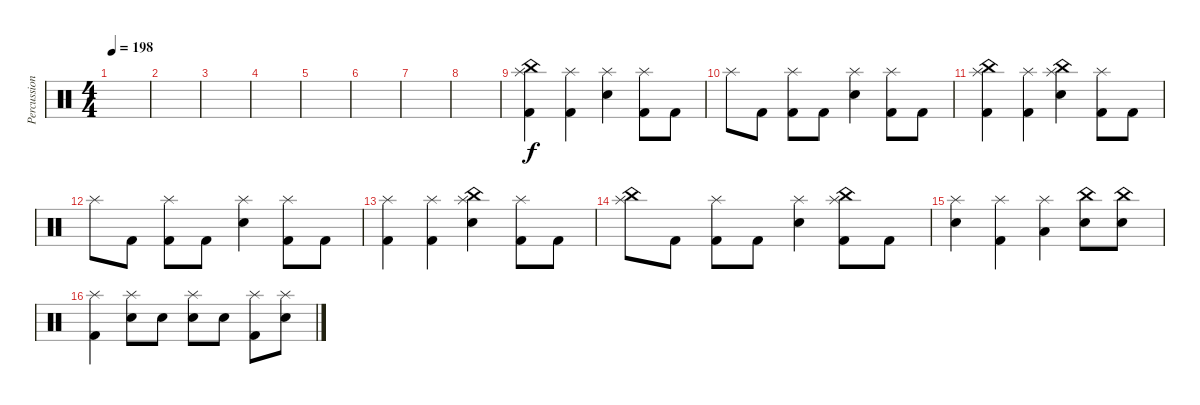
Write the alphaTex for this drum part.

\track ("Percussion" "Percussion") {instrument percussion}
\staff {score}
\articulation defaults
\ts (4 4)
\tempo 198
\clef neutral
\ks c
|
|
|
|
|
|
|
|
("China (hit)" "Splash (hit)" "Kick (hit) 2").4 ("Splash (hit)" "Kick (hit) 2").4 ("Splash (hit)" "Electric Snare (hit)").4 ("Splash (hit)" "Kick (hit) 2").8 "Kick (hit) 2".8 |
"Splash (hit)".8 "Kick (hit) 2".8 ("Splash (hit)" "Kick (hit) 2").8 "Kick (hit) 2".8 ("Splash (hit)" "Electric Snare (hit)").4 ("Splash (hit)" "Kick (hit) 2").8 "Kick (hit) 2".8 |
("China (hit)" "Splash (hit)" "Kick (hit) 2").4 ("Splash (hit)" "Kick (hit) 2").4 ("China (hit)" "Splash (hit)" "Electric Snare (hit)").4 ("Splash (hit)" "Kick (hit) 2").8 "Kick (hit) 2".8 |
"Splash (hit)".8 "Kick (hit) 2".8 ("Splash (hit)" "Kick (hit) 2").8 "Kick (hit) 2".8 ("Splash (hit)" "Electric Snare (hit)").4 ("Splash (hit)" "Kick (hit) 2").8 "Kick (hit) 2".8 |
("Splash (hit)" "Kick (hit) 2").4 ("Splash (hit)" "Kick (hit) 2").4 ("China (hit)" "Splash (hit)" "Electric Snare (hit)").4 ("Splash (hit)" "Kick (hit) 2").8 "Kick (hit) 2".8 |
("China (hit)" "Splash (hit)").8 "Kick (hit) 2".8 ("Splash (hit)" "Kick (hit) 2").8 "Kick (hit) 2".8 ("Splash (hit)" "Electric Snare (hit)").4 ("China (hit)" "Splash (hit)" "Kick (hit) 2").8 "Kick (hit) 2".8 |
("Splash (hit)" "Electric Snare (hit)").4 ("Splash (hit)" "Kick (hit) 2").4 ("Splash (hit)" "Low Tom (hit)").4 ("China (hit)" "Electric Snare (hit)").8 ("China (hit)" "Electric Snare (hit)").8 |
("Splash (hit)" "Kick (hit) 2").4 ("Splash (hit)" "Electric Snare (hit)").8 "Electric Snare (hit)".8 ("Splash (hit)" "Electric Snare (hit)").8 "Electric Snare (hit)".8 ("Splash (hit)" "Kick (hit) 2").8 ("Splash (hit)" "Electric Snare (hit)").8
